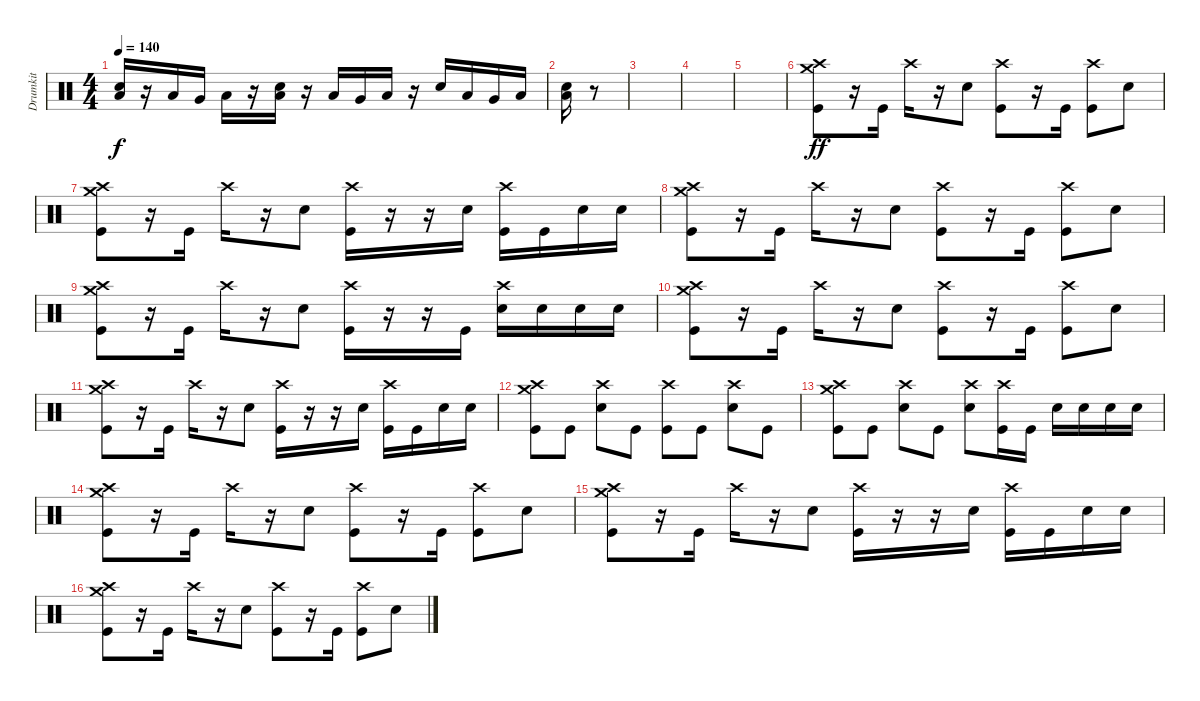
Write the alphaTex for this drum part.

\track ("Drumkit" "Drumkit") {instrument percussion}
\staff {score}
\articulation defaults
\ts (4 4)
\tempo 140
\clef neutral
\ks c
("Snare (hit) 2" "Low Tom (hit)").16{dy f} r.16 "Low Tom (hit)".16 "Very Low Tom (hit)".16 "Low Floor Tom (hit)".16 r.16 ("Snare (hit) 2" "Low Tom (hit)").16 r.16 "Low Tom (hit)".16 "Very Low Tom (hit)".16 "Low Floor Tom (hit)".16 r.16 "Snare (hit) 2".16 "Low Tom (hit)".16 "Very Low Tom (hit)".16 "Low Tom (hit)".16 |
("Snare (hit) 2" "Low Tom (hit)").16 r.8 |
|
|
|
("Crash high (hit)" "Crash medium (hit)" "Kick (hit)").8{dy ff} r.16 "Kick (hit)".16 "Crash high (hit)".16 r.16 "Snare (hit) 2".8 ("Kick (hit)" "Crash high (hit)").8 r.16 "Kick (hit)".16 ("Kick (hit)" "Crash high (hit)").8 "Snare (hit) 2".8 |
("Crash high (hit)" "Crash medium (hit)" "Kick (hit)").8 r.16 "Kick (hit)".16 "Crash high (hit)".16 r.16 "Snare (hit) 2".8 ("Kick (hit)" "Crash high (hit)").16 r.16 r.16 "Snare (hit) 2".16 ("Kick (hit)" "Crash high (hit)").16 "Kick (hit)".16 "Snare (hit) 2".16 "Snare (hit) 2".16 |
("Crash high (hit)" "Crash medium (hit)" "Kick (hit)").8 r.16 "Kick (hit)".16 "Crash high (hit)".16 r.16 "Snare (hit) 2".8 ("Kick (hit)" "Crash high (hit)").8 r.16 "Kick (hit)".16 ("Kick (hit)" "Crash high (hit)").8 "Snare (hit) 2".8 |
("Crash high (hit)" "Crash medium (hit)" "Kick (hit)").8 r.16 "Kick (hit)".16 "Crash high (hit)".16 r.16 "Snare (hit) 2".8 ("Kick (hit)" "Crash high (hit)").16 r.16 r.16 "Kick (hit)".16 ("Crash high (hit)" "Snare (hit) 2").16 "Snare (hit) 2".16 "Snare (hit) 2".16 "Snare (hit) 2".16 |
("Crash high (hit)" "Crash medium (hit)" "Kick (hit)").8 r.16 "Kick (hit)".16 "Crash high (hit)".16 r.16 "Snare (hit) 2".8 ("Kick (hit)" "Crash high (hit)").8 r.16 "Kick (hit)".16 ("Kick (hit)" "Crash high (hit)").8 "Snare (hit) 2".8 |
("Crash high (hit)" "Crash medium (hit)" "Kick (hit)").8 r.16 "Kick (hit)".16 "Crash high (hit)".16 r.16 "Snare (hit) 2".8 ("Kick (hit)" "Crash high (hit)").16 r.16 r.16 "Snare (hit) 2".16 ("Kick (hit)" "Crash high (hit)").16 "Kick (hit)".16 "Snare (hit) 2".16 "Snare (hit) 2".16 |
("Crash high (hit)" "Crash medium (hit)" "Kick (hit)").8 "Kick (hit)".8 ("Snare (hit) 2" "Crash high (hit)").8 "Kick (hit)".8 ("Kick (hit)" "Crash high (hit)").8 "Kick (hit)".8 ("Snare (hit) 2" "Crash high (hit)").8 "Kick (hit)".8 |
("Crash high (hit)" "Crash medium (hit)" "Kick (hit)").8 "Kick (hit)".8 ("Snare (hit) 2" "Crash high (hit)").8 "Kick (hit)".8 ("Crash high (hit)" "Snare (hit) 2").8 ("Crash high (hit)" "Kick (hit)").16 "Kick (hit)".16 "Snare (hit) 2".16 "Snare (hit) 2".16 "Snare (hit) 2".16 "Snare (hit) 2".16 |
("Crash high (hit)" "Crash medium (hit)" "Kick (hit)").8 r.16 "Kick (hit)".16 "Crash high (hit)".16 r.16 "Snare (hit) 2".8 ("Kick (hit)" "Crash high (hit)").8 r.16 "Kick (hit)".16 ("Kick (hit)" "Crash high (hit)").8 "Snare (hit) 2".8 |
("Crash high (hit)" "Crash medium (hit)" "Kick (hit)").8 r.16 "Kick (hit)".16 "Crash high (hit)".16 r.16 "Snare (hit) 2".8 ("Kick (hit)" "Crash high (hit)").16 r.16 r.16 "Snare (hit) 2".16 ("Kick (hit)" "Crash high (hit)").16 "Kick (hit)".16 "Snare (hit) 2".16 "Snare (hit) 2".16 |
("Crash high (hit)" "Crash medium (hit)" "Kick (hit)").8 r.16 "Kick (hit)".16 "Crash high (hit)".16 r.16 "Snare (hit) 2".8 ("Kick (hit)" "Crash high (hit)").8 r.16 "Kick (hit)".16 ("Kick (hit)" "Crash high (hit)").8 "Snare (hit) 2".8
